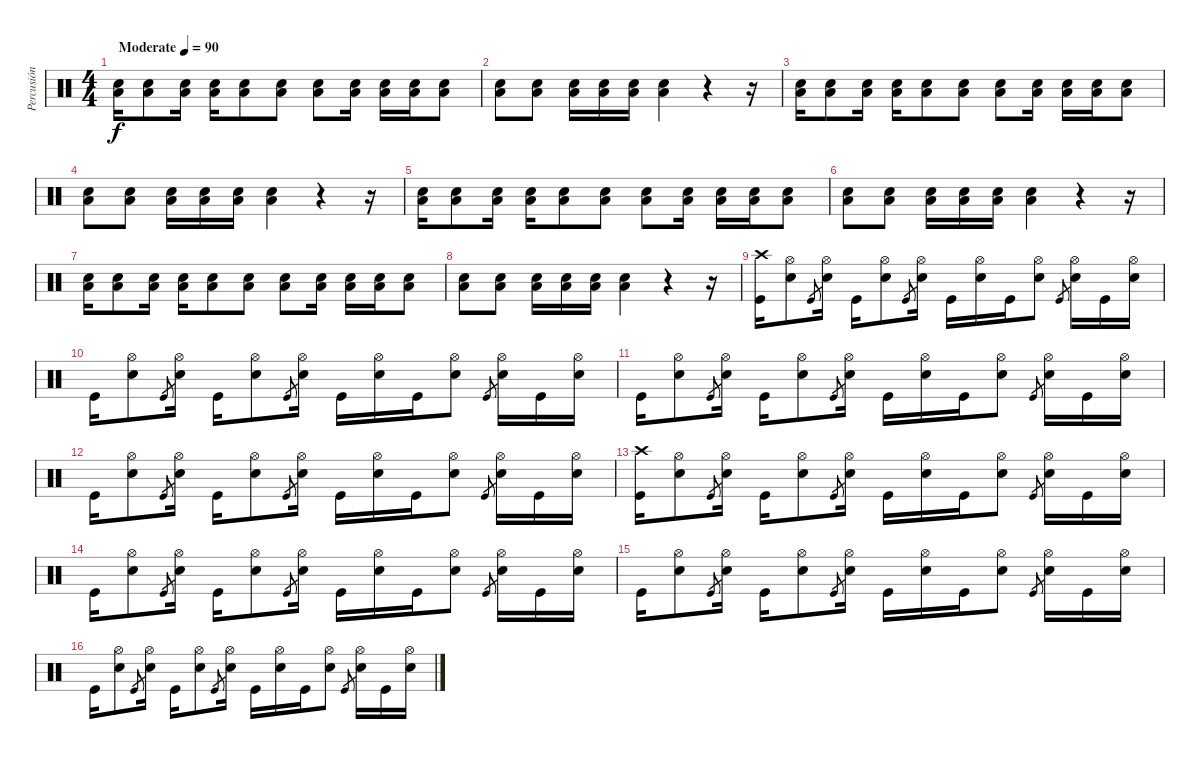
\track ("Percusión" "Percusión") {instrument percussion}
\staff {score}
\articulation defaults
\ts (4 4)
\tempo (90 "Moderate")
\clef neutral
\ks c
("Snare (hit) 2" "Low Floor Tom (hit)").16{dy f} ("Snare (hit) 2" "Low Floor Tom (hit)").8 ("Snare (hit) 2" "Low Floor Tom (hit)").16 ("Snare (hit) 2" "Low Floor Tom (hit)").16 ("Snare (hit) 2" "Low Floor Tom (hit)").8 ("Snare (hit) 2" "Low Floor Tom (hit)").8 ("Snare (hit) 2" "Low Floor Tom (hit)").8 ("Snare (hit) 2" "Low Floor Tom (hit)").16 ("Snare (hit) 2" "Low Floor Tom (hit)").16 ("Snare (hit) 2" "Low Floor Tom (hit)").16 ("Snare (hit) 2" "Low Floor Tom (hit)").8 |
("Snare (hit) 2" "Low Floor Tom (hit)").8 ("Snare (hit) 2" "Low Floor Tom (hit)").8 ("Snare (hit) 2" "Low Floor Tom (hit)").16 ("Snare (hit) 2" "Low Floor Tom (hit)").16 ("Snare (hit) 2" "Low Floor Tom (hit)").16 ("Snare (hit) 2" "Low Floor Tom (hit)").4 r.4 r.16 |
("Snare (hit) 2" "Low Floor Tom (hit)").16 ("Snare (hit) 2" "Low Floor Tom (hit)").8 ("Snare (hit) 2" "Low Floor Tom (hit)").16 ("Snare (hit) 2" "Low Floor Tom (hit)").16 ("Snare (hit) 2" "Low Floor Tom (hit)").8 ("Snare (hit) 2" "Low Floor Tom (hit)").8 ("Snare (hit) 2" "Low Floor Tom (hit)").8 ("Snare (hit) 2" "Low Floor Tom (hit)").16 ("Snare (hit) 2" "Low Floor Tom (hit)").16 ("Snare (hit) 2" "Low Floor Tom (hit)").16 ("Snare (hit) 2" "Low Floor Tom (hit)").8 |
("Snare (hit) 2" "Low Floor Tom (hit)").8 ("Snare (hit) 2" "Low Floor Tom (hit)").8 ("Snare (hit) 2" "Low Floor Tom (hit)").16 ("Snare (hit) 2" "Low Floor Tom (hit)").16 ("Snare (hit) 2" "Low Floor Tom (hit)").16 ("Snare (hit) 2" "Low Floor Tom (hit)").4 r.4 r.16 |
("Snare (hit) 2" "Low Floor Tom (hit)").16 ("Snare (hit) 2" "Low Floor Tom (hit)").8 ("Snare (hit) 2" "Low Floor Tom (hit)").16 ("Snare (hit) 2" "Low Floor Tom (hit)").16 ("Snare (hit) 2" "Low Floor Tom (hit)").8 ("Snare (hit) 2" "Low Floor Tom (hit)").8 ("Snare (hit) 2" "Low Floor Tom (hit)").8 ("Snare (hit) 2" "Low Floor Tom (hit)").16 ("Snare (hit) 2" "Low Floor Tom (hit)").16 ("Snare (hit) 2" "Low Floor Tom (hit)").16 ("Snare (hit) 2" "Low Floor Tom (hit)").8 |
("Snare (hit) 2" "Low Floor Tom (hit)").8 ("Snare (hit) 2" "Low Floor Tom (hit)").8 ("Snare (hit) 2" "Low Floor Tom (hit)").16 ("Snare (hit) 2" "Low Floor Tom (hit)").16 ("Snare (hit) 2" "Low Floor Tom (hit)").16 ("Snare (hit) 2" "Low Floor Tom (hit)").4 r.4 r.16 |
("Snare (hit) 2" "Low Floor Tom (hit)").16 ("Snare (hit) 2" "Low Floor Tom (hit)").8 ("Snare (hit) 2" "Low Floor Tom (hit)").16 ("Snare (hit) 2" "Low Floor Tom (hit)").16 ("Snare (hit) 2" "Low Floor Tom (hit)").8 ("Snare (hit) 2" "Low Floor Tom (hit)").8 ("Snare (hit) 2" "Low Floor Tom (hit)").8 ("Snare (hit) 2" "Low Floor Tom (hit)").16 ("Snare (hit) 2" "Low Floor Tom (hit)").16 ("Snare (hit) 2" "Low Floor Tom (hit)").16 ("Snare (hit) 2" "Low Floor Tom (hit)").8 |
("Snare (hit) 2" "Low Floor Tom (hit)").8 ("Snare (hit) 2" "Low Floor Tom (hit)").8 ("Snare (hit) 2" "Low Floor Tom (hit)").16 ("Snare (hit) 2" "Low Floor Tom (hit)").16 ("Snare (hit) 2" "Low Floor Tom (hit)").16 ("Snare (hit) 2" "Low Floor Tom (hit)").4 r.4 r.16 |
("Kick (hit)" "Crash high (hit)").16 ("Snare (hit) 2" "Hi-Hat (open)").8 "Kick (hit)".8{gr} ("Snare (hit) 2" "Hi-Hat (open)").16 "Kick (hit)".16 ("Snare (hit) 2" "Hi-Hat (open)").8 "Kick (hit)".8{gr} ("Snare (hit) 2" "Hi-Hat (open)").16 "Kick (hit)".16 ("Snare (hit) 2" "Hi-Hat (open)").16 "Kick (hit)".16 ("Snare (hit) 2" "Hi-Hat (open)").8 "Kick (hit)".8{gr} ("Snare (hit) 2" "Hi-Hat (open)").16 "Kick (hit)".16 ("Snare (hit) 2" "Hi-Hat (open)").16 |
"Kick (hit)".16 ("Snare (hit) 2" "Hi-Hat (open)").8 "Kick (hit)".8{gr} ("Snare (hit) 2" "Hi-Hat (open)").16 "Kick (hit)".16 ("Snare (hit) 2" "Hi-Hat (open)").8 "Kick (hit)".8{gr} ("Snare (hit) 2" "Hi-Hat (open)").16 "Kick (hit)".16 ("Snare (hit) 2" "Hi-Hat (open)").16 "Kick (hit)".16 ("Snare (hit) 2" "Hi-Hat (open)").8 "Kick (hit)".8{gr} ("Snare (hit) 2" "Hi-Hat (open)").16 "Kick (hit)".16 ("Snare (hit) 2" "Hi-Hat (open)").16 |
"Kick (hit)".16 ("Snare (hit) 2" "Hi-Hat (open)").8 "Kick (hit)".8{gr} ("Snare (hit) 2" "Hi-Hat (open)").16 "Kick (hit)".16 ("Snare (hit) 2" "Hi-Hat (open)").8 "Kick (hit)".8{gr} ("Snare (hit) 2" "Hi-Hat (open)").16 "Kick (hit)".16 ("Snare (hit) 2" "Hi-Hat (open)").16 "Kick (hit)".16 ("Snare (hit) 2" "Hi-Hat (open)").8 "Kick (hit)".8{gr} ("Snare (hit) 2" "Hi-Hat (open)").16 "Kick (hit)".16 ("Snare (hit) 2" "Hi-Hat (open)").16 |
"Kick (hit)".16 ("Snare (hit) 2" "Hi-Hat (open)").8 "Kick (hit)".8{gr} ("Snare (hit) 2" "Hi-Hat (open)").16 "Kick (hit)".16 ("Snare (hit) 2" "Hi-Hat (open)").8 "Kick (hit)".8{gr} ("Snare (hit) 2" "Hi-Hat (open)").16 "Kick (hit)".16 ("Snare (hit) 2" "Hi-Hat (open)").16 "Kick (hit)".16 ("Snare (hit) 2" "Hi-Hat (open)").8 "Kick (hit)".8{gr} ("Snare (hit) 2" "Hi-Hat (open)").16 "Kick (hit)".16 ("Snare (hit) 2" "Hi-Hat (open)").16 |
("Kick (hit)" "Crash high (hit)").16 ("Snare (hit) 2" "Hi-Hat (open)").8 "Kick (hit)".8{gr} ("Snare (hit) 2" "Hi-Hat (open)").16 "Kick (hit)".16 ("Snare (hit) 2" "Hi-Hat (open)").8 "Kick (hit)".8{gr} ("Snare (hit) 2" "Hi-Hat (open)").16 "Kick (hit)".16 ("Snare (hit) 2" "Hi-Hat (open)").16 "Kick (hit)".16 ("Snare (hit) 2" "Hi-Hat (open)").8 "Kick (hit)".8{gr} ("Snare (hit) 2" "Hi-Hat (open)").16 "Kick (hit)".16 ("Snare (hit) 2" "Hi-Hat (open)").16 |
"Kick (hit)".16 ("Snare (hit) 2" "Hi-Hat (open)").8 "Kick (hit)".8{gr} ("Snare (hit) 2" "Hi-Hat (open)").16 "Kick (hit)".16 ("Snare (hit) 2" "Hi-Hat (open)").8 "Kick (hit)".8{gr} ("Snare (hit) 2" "Hi-Hat (open)").16 "Kick (hit)".16 ("Snare (hit) 2" "Hi-Hat (open)").16 "Kick (hit)".16 ("Snare (hit) 2" "Hi-Hat (open)").8 "Kick (hit)".8{gr} ("Snare (hit) 2" "Hi-Hat (open)").16 "Kick (hit)".16 ("Snare (hit) 2" "Hi-Hat (open)").16 |
"Kick (hit)".16 ("Snare (hit) 2" "Hi-Hat (open)").8 "Kick (hit)".8{gr} ("Snare (hit) 2" "Hi-Hat (open)").16 "Kick (hit)".16 ("Snare (hit) 2" "Hi-Hat (open)").8 "Kick (hit)".8{gr} ("Snare (hit) 2" "Hi-Hat (open)").16 "Kick (hit)".16 ("Snare (hit) 2" "Hi-Hat (open)").16 "Kick (hit)".16 ("Snare (hit) 2" "Hi-Hat (open)").8 "Kick (hit)".8{gr} ("Snare (hit) 2" "Hi-Hat (open)").16 "Kick (hit)".16 ("Snare (hit) 2" "Hi-Hat (open)").16 |
"Kick (hit)".16 ("Snare (hit) 2" "Hi-Hat (open)").8 "Kick (hit)".8{gr} ("Snare (hit) 2" "Hi-Hat (open)").16 "Kick (hit)".16 ("Snare (hit) 2" "Hi-Hat (open)").8 "Kick (hit)".8{gr} ("Snare (hit) 2" "Hi-Hat (open)").16 "Kick (hit)".16 ("Snare (hit) 2" "Hi-Hat (open)").16 "Kick (hit)".16 ("Snare (hit) 2" "Hi-Hat (open)").8 "Kick (hit)".8{gr} ("Snare (hit) 2" "Hi-Hat (open)").16 "Kick (hit)".16 ("Snare (hit) 2" "Hi-Hat (open)").16
